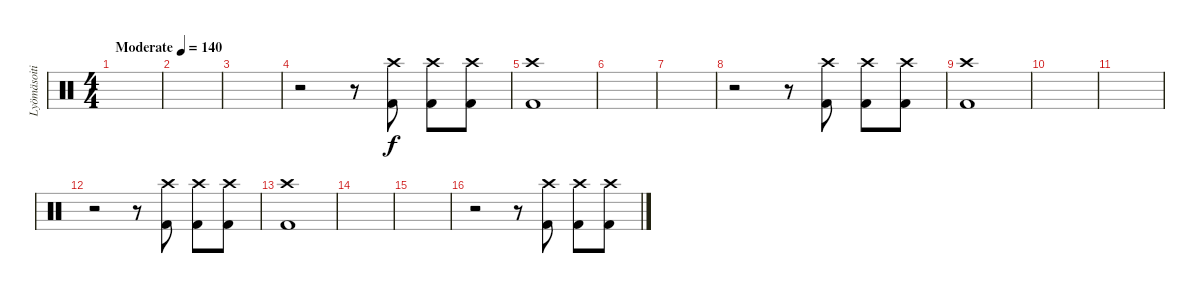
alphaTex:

\track ("Lyömäsoitin" "Lyömäsoiti") {instrument percussion}
\staff {score}
\articulation defaults
\ts (4 4)
\tempo (140 "Moderate")
\clef neutral
\ks c
|
|
|
r.2 r.8 ("Crash high (hit)" "Kick (hit) 2").8 ("Crash high (hit)" "Kick (hit) 2").8 ("Crash high (hit)" "Kick (hit) 2").8 |
("Crash high (hit)" "Kick (hit) 2").1 |
|
|
r.2 r.8 ("Crash high (hit)" "Kick (hit) 2").8 ("Crash high (hit)" "Kick (hit) 2").8 ("Crash high (hit)" "Kick (hit) 2").8 |
("Crash high (hit)" "Kick (hit) 2").1 |
|
|
r.2 r.8 ("Crash high (hit)" "Kick (hit) 2").8 ("Crash high (hit)" "Kick (hit) 2").8 ("Crash high (hit)" "Kick (hit) 2").8 |
("Crash high (hit)" "Kick (hit) 2").1 |
|
|
r.2 r.8 ("Crash high (hit)" "Kick (hit) 2").8 ("Crash high (hit)" "Kick (hit) 2").8 ("Crash high (hit)" "Kick (hit) 2").8
